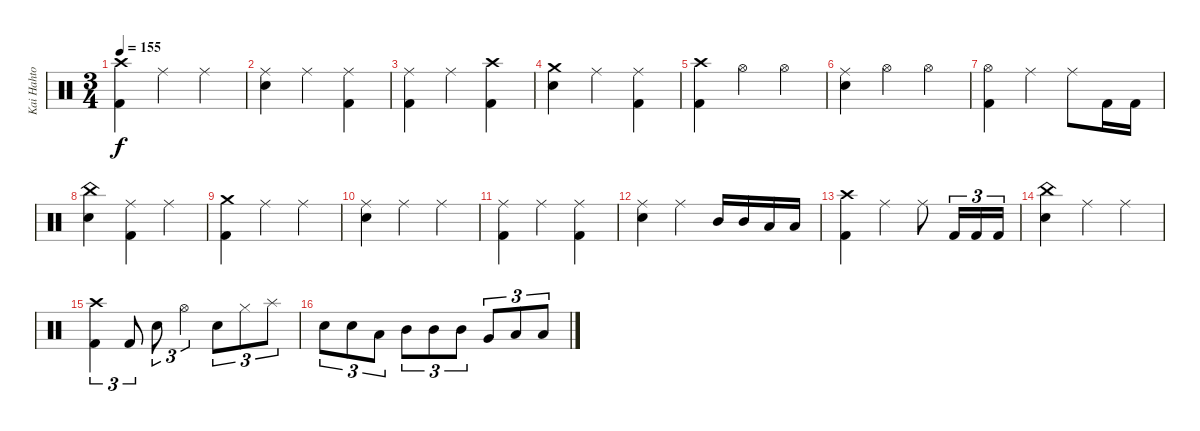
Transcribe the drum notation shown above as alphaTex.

\track ("Kai Hahto" "Kai Hahto") {instrument percussion}
\staff {score}
\articulation defaults
\ts (3 4)
\tempo 155
\clef neutral
\ks c
("Crash high (hit)" "Kick (hit) 2").4{dy f} "Ride (middle)".4 "Ride (middle)".4 |
("Ride (middle)" "Electric Snare (hit)").4 "Ride (middle)".4 ("Ride (middle)" "Kick (hit) 2").4 |
("Ride (middle)" "Kick (hit) 2").4 "Ride (middle)".4 ("Crash high (hit)" "Kick (hit) 2").4 |
("Crash medium (hit)" "Electric Snare (hit)").4 "Ride (middle)".4 ("Ride (middle)" "Kick (hit) 2").4 |
("Crash high (hit)" "Kick (hit) 2").4 "Hi-Hat (open)".4 "Hi-Hat (open)".4 |
("Ride (middle)" "Electric Snare (hit)").4 "Hi-Hat (open)".4 "Hi-Hat (open)".4 |
("Hi-Hat (open)" "Kick (hit) 2").4 "Ride (middle)".4 "Ride (middle)".8 "Kick (hit) 2".16 "Kick (hit) 2".16 |
("China (hit)" "Electric Snare (hit)").4 ("Ride (middle)" "Kick (hit) 2").4 "Ride (middle)".4 |
("Crash medium (hit)" "Kick (hit) 2").4 "Ride (middle)".4 "Ride (middle)".4 |
("Ride (middle)" "Electric Snare (hit)").4 "Ride (middle)".4 "Ride (middle)".4 |
("Ride (middle)" "Kick (hit) 2").4 "Ride (middle)".4 ("Ride (middle)" "Kick (hit) 2").4 |
("Ride (middle)" "Electric Snare (hit)").4 "Ride (middle)".4 "Mid Tom (hit)".16 "Mid Tom (hit)".16 "Low Tom (hit)".16 "Low Tom (hit)".16 |
("Crash high (hit)" "Kick (hit) 2").4 "Ride (middle)".4 "Ride (middle)".8 "Kick (hit) 2".16{tu (3 2)} "Kick (hit) 2".16{tu (3 2)} "Kick (hit) 2".16{tu (3 2)} |
("China (hit)" "Electric Snare (hit)").4 "Ride (middle)".4 "Ride (middle)".4 |
("Crash high (hit)" "Kick (hit) 2").4{tu (3 2)} "Kick (hit) 2".8{tu (3 2)} "Electric Snare (hit)".8{tu (3 2)} "Hi-Hat (open)".4{tu (3 2)} "Electric Snare (hit)".8{tu (3 2)} "Hi-Hat (closed)".8{tu (3 2)} "Splash (hit)".8{tu (3 2)} |
"Electric Snare (hit)".8{tu (3 2)} "Electric Snare (hit)".8{tu (3 2)} "Low Tom (hit)".8{tu (3 2)} "Mid Tom (hit)".8{tu (3 2)} "Mid Tom (hit)".8{tu (3 2)} "Mid Tom (hit)".8{tu (3 2)} "Very Low Tom (hit)".8{tu (3 2)} "Low Floor Tom (hit)".8{tu (3 2)} "Low Floor Tom (hit)".8{tu (3 2)}
